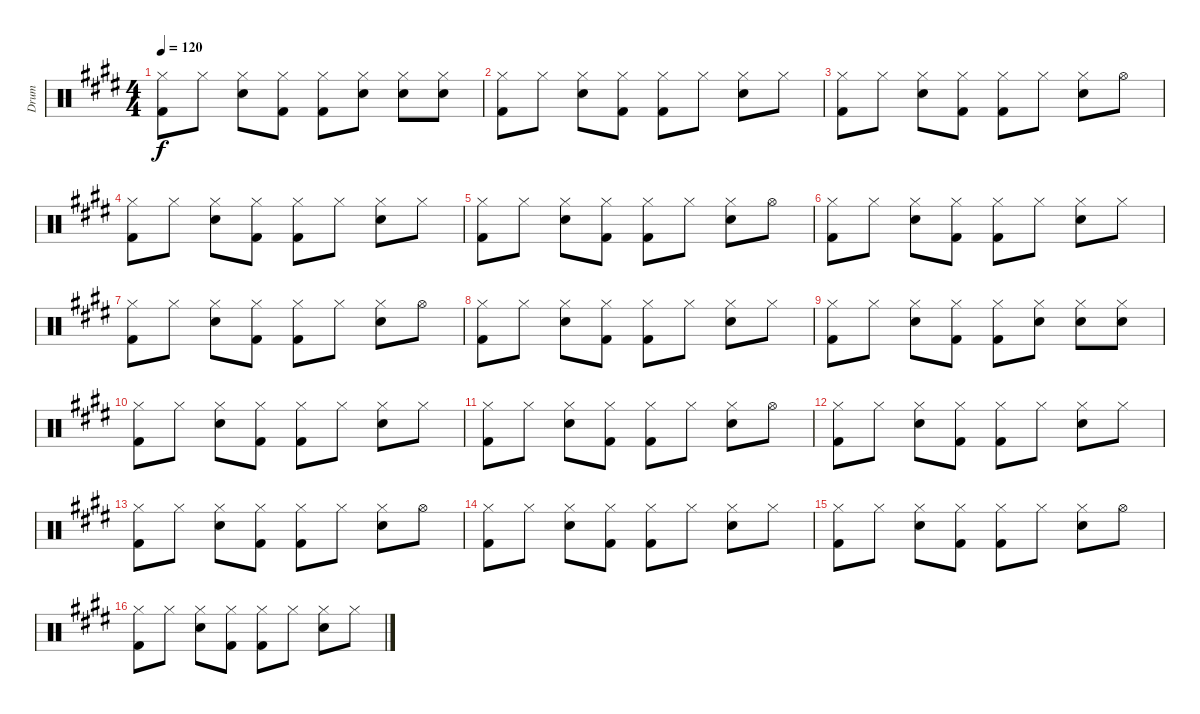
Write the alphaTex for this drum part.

\track ("Drum" "Drum") {instrument percussion}
\staff {score}
\articulation defaults
\ts (4 4)
\tempo 120
\clef neutral
\ks e
("Hi-Hat (closed)" "Kick (hit) 2").8{dy f} "Hi-Hat (closed)".8 ("Hi-Hat (closed)" "Snare (hit) 2").8 ("Hi-Hat (closed)" "Kick (hit) 2").8 ("Hi-Hat (closed)" "Kick (hit) 2").8 ("Hi-Hat (closed)" "Snare (hit) 2").8 ("Hi-Hat (closed)" "Snare (hit) 2").8 ("Hi-Hat (closed)" "Snare (hit) 2").8 |
("Hi-Hat (closed)" "Kick (hit) 2").8 "Hi-Hat (closed)".8 ("Hi-Hat (closed)" "Snare (hit) 2").8 ("Hi-Hat (closed)" "Kick (hit) 2").8 ("Hi-Hat (closed)" "Kick (hit) 2").8 "Hi-Hat (closed)".8 ("Hi-Hat (closed)" "Snare (hit) 2").8 "Hi-Hat (closed)".8 |
("Hi-Hat (closed)" "Kick (hit) 2").8 "Hi-Hat (closed)".8 ("Hi-Hat (closed)" "Snare (hit) 2").8 ("Hi-Hat (closed)" "Kick (hit) 2").8 ("Hi-Hat (closed)" "Kick (hit) 2").8 "Hi-Hat (closed)".8 ("Hi-Hat (closed)" "Snare (hit) 2").8 "Hi-Hat (open)".8 |
("Hi-Hat (closed)" "Kick (hit) 2").8 "Hi-Hat (closed)".8 ("Hi-Hat (closed)" "Snare (hit) 2").8 ("Hi-Hat (closed)" "Kick (hit) 2").8 ("Hi-Hat (closed)" "Kick (hit) 2").8 "Hi-Hat (closed)".8 ("Hi-Hat (closed)" "Snare (hit) 2").8 "Hi-Hat (closed)".8 |
("Hi-Hat (closed)" "Kick (hit) 2").8 "Hi-Hat (closed)".8 ("Hi-Hat (closed)" "Snare (hit) 2").8 ("Hi-Hat (closed)" "Kick (hit) 2").8 ("Hi-Hat (closed)" "Kick (hit) 2").8 "Hi-Hat (closed)".8 ("Hi-Hat (closed)" "Snare (hit) 2").8 "Hi-Hat (open)".8 |
("Hi-Hat (closed)" "Kick (hit) 2").8 "Hi-Hat (closed)".8 ("Hi-Hat (closed)" "Snare (hit) 2").8 ("Hi-Hat (closed)" "Kick (hit) 2").8 ("Hi-Hat (closed)" "Kick (hit) 2").8 "Hi-Hat (closed)".8 ("Hi-Hat (closed)" "Snare (hit) 2").8 "Hi-Hat (closed)".8 |
("Hi-Hat (closed)" "Kick (hit) 2").8 "Hi-Hat (closed)".8 ("Hi-Hat (closed)" "Snare (hit) 2").8 ("Hi-Hat (closed)" "Kick (hit) 2").8 ("Hi-Hat (closed)" "Kick (hit) 2").8 "Hi-Hat (closed)".8 ("Hi-Hat (closed)" "Snare (hit) 2").8 "Hi-Hat (open)".8 |
("Hi-Hat (closed)" "Kick (hit) 2").8 "Hi-Hat (closed)".8 ("Hi-Hat (closed)" "Snare (hit) 2").8 ("Hi-Hat (closed)" "Kick (hit) 2").8 ("Hi-Hat (closed)" "Kick (hit) 2").8 "Hi-Hat (closed)".8 ("Hi-Hat (closed)" "Snare (hit) 2").8 "Hi-Hat (closed)".8 |
("Hi-Hat (closed)" "Kick (hit) 2").8 "Hi-Hat (closed)".8 ("Hi-Hat (closed)" "Snare (hit) 2").8 ("Hi-Hat (closed)" "Kick (hit) 2").8 ("Hi-Hat (closed)" "Kick (hit) 2").8 ("Hi-Hat (closed)" "Snare (hit) 2").8 ("Hi-Hat (closed)" "Snare (hit) 2").8 ("Hi-Hat (closed)" "Snare (hit) 2").8 |
("Hi-Hat (closed)" "Kick (hit) 2").8 "Hi-Hat (closed)".8 ("Hi-Hat (closed)" "Snare (hit) 2").8 ("Hi-Hat (closed)" "Kick (hit) 2").8 ("Hi-Hat (closed)" "Kick (hit) 2").8 "Hi-Hat (closed)".8 ("Hi-Hat (closed)" "Snare (hit) 2").8 "Hi-Hat (closed)".8 |
("Hi-Hat (closed)" "Kick (hit) 2").8 "Hi-Hat (closed)".8 ("Hi-Hat (closed)" "Snare (hit) 2").8 ("Hi-Hat (closed)" "Kick (hit) 2").8 ("Hi-Hat (closed)" "Kick (hit) 2").8 "Hi-Hat (closed)".8 ("Hi-Hat (closed)" "Snare (hit) 2").8 "Hi-Hat (open)".8 |
("Hi-Hat (closed)" "Kick (hit) 2").8 "Hi-Hat (closed)".8 ("Hi-Hat (closed)" "Snare (hit) 2").8 ("Hi-Hat (closed)" "Kick (hit) 2").8 ("Hi-Hat (closed)" "Kick (hit) 2").8 "Hi-Hat (closed)".8 ("Hi-Hat (closed)" "Snare (hit) 2").8 "Hi-Hat (closed)".8 |
("Hi-Hat (closed)" "Kick (hit) 2").8 "Hi-Hat (closed)".8 ("Hi-Hat (closed)" "Snare (hit) 2").8 ("Hi-Hat (closed)" "Kick (hit) 2").8 ("Hi-Hat (closed)" "Kick (hit) 2").8 "Hi-Hat (closed)".8 ("Hi-Hat (closed)" "Snare (hit) 2").8 "Hi-Hat (open)".8 |
("Hi-Hat (closed)" "Kick (hit) 2").8 "Hi-Hat (closed)".8 ("Hi-Hat (closed)" "Snare (hit) 2").8 ("Hi-Hat (closed)" "Kick (hit) 2").8 ("Hi-Hat (closed)" "Kick (hit) 2").8 "Hi-Hat (closed)".8 ("Hi-Hat (closed)" "Snare (hit) 2").8 "Hi-Hat (closed)".8 |
("Hi-Hat (closed)" "Kick (hit) 2").8 "Hi-Hat (closed)".8 ("Hi-Hat (closed)" "Snare (hit) 2").8 ("Hi-Hat (closed)" "Kick (hit) 2").8 ("Hi-Hat (closed)" "Kick (hit) 2").8 "Hi-Hat (closed)".8 ("Hi-Hat (closed)" "Snare (hit) 2").8 "Hi-Hat (open)".8 |
("Hi-Hat (closed)" "Kick (hit) 2").8 "Hi-Hat (closed)".8 ("Hi-Hat (closed)" "Snare (hit) 2").8 ("Hi-Hat (closed)" "Kick (hit) 2").8 ("Hi-Hat (closed)" "Kick (hit) 2").8 "Hi-Hat (closed)".8 ("Hi-Hat (closed)" "Snare (hit) 2").8 "Hi-Hat (closed)".8
